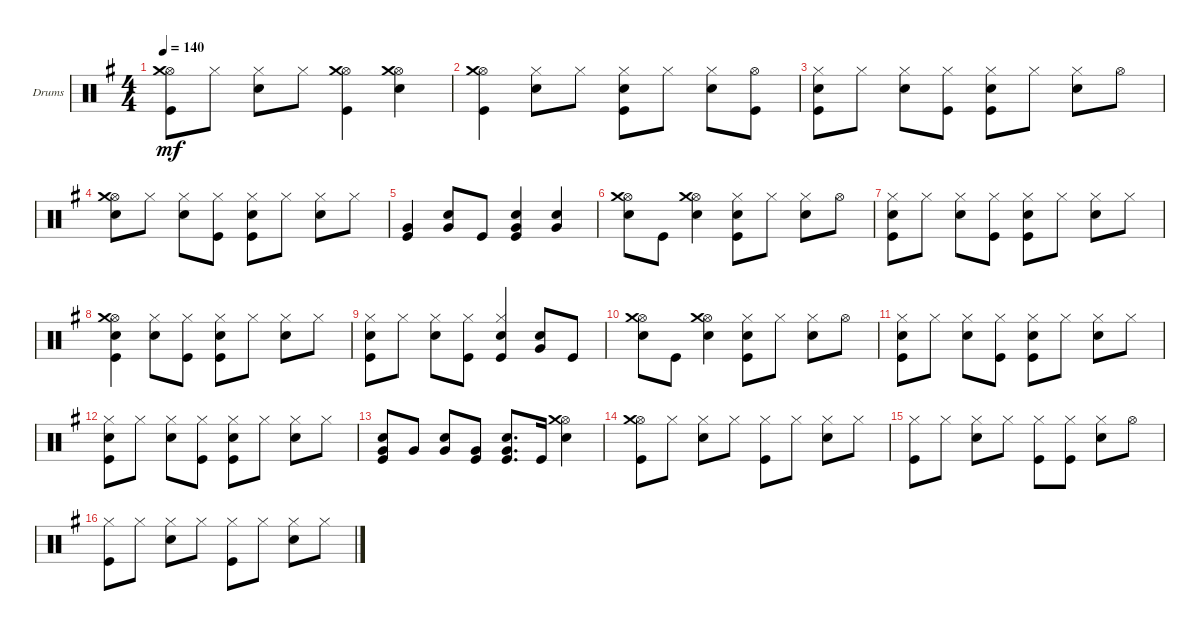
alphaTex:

\defaultSystemsLayout 4
\bracketExtendMode groupsimilarinstruments
\firstSystemTrackNameOrientation horizontal
\otherSystemsTrackNameOrientation horizontal
\track ("Drumkit" "Drums") {instrument percussion}
\staff {score}
\articulation defaults
\ts (4 4)
\tempo 140
\clef neutral
\ks g
("Hi-Hat (open)" "Crash medium (hit)" "Kick (hit)").8{dy mf} "Hi-Hat (closed)".8 ("Hi-Hat (closed)" "Snare (hit) 2").8 "Hi-Hat (closed)".8 ("Hi-Hat (open)" "Crash medium (hit)" "Kick (hit)").4 ("Snare (hit) 2" "Hi-Hat (open)" "Crash medium (hit)").4 |
("Hi-Hat (open)" "Kick (hit)" "Crash medium (hit)").4 ("Hi-Hat (closed)" "Snare (hit) 2").8 "Hi-Hat (closed)".8 ("Hi-Hat (closed)" "Snare (hit) 2" "Kick (hit)").8 "Hi-Hat (closed)".8 ("Hi-Hat (closed)" "Snare (hit) 2").8 ("Hi-Hat (open)" "Kick (hit)").8 |
("Kick (hit)" "Snare (hit) 2" "Hi-Hat (closed)").8 "Hi-Hat (closed)".8 ("Hi-Hat (closed)" "Snare (hit) 2").8 ("Hi-Hat (closed)" "Kick (hit)").8 ("Snare (hit) 2" "Hi-Hat (closed)" "Kick (hit)").8 "Hi-Hat (closed)".8 ("Hi-Hat (closed)" "Snare (hit) 2").8 "Hi-Hat (open)".8 |
("Hi-Hat (open)" "Crash medium (hit)" "Snare (hit) 2").8 "Hi-Hat (closed)".8 ("Hi-Hat (closed)" "Snare (hit) 2").8 ("Kick (hit)" "Hi-Hat (closed)").8 ("Hi-Hat (closed)" "Kick (hit)" "Snare (hit) 2").8 "Hi-Hat (closed)".8 ("Hi-Hat (closed)" "Snare (hit) 2").8 "Hi-Hat (closed)".8 |
("Kick (hit)" "Very Low Tom (hit)").4 ("Very Low Tom (hit)" "Snare (hit) 2").8 "Kick (hit)".8 ("Kick (hit)" "Very Low Tom (hit)" "Snare (hit) 2").4 ("Snare (hit) 2" "Very Low Tom (hit)").4 |
("Hi-Hat (open)" "Crash medium (hit)" "Snare (hit) 2").8 "Kick (hit)".8 ("Snare (hit) 2" "Hi-Hat (open)" "Crash medium (hit)").4 ("Hi-Hat (closed)" "Snare (hit) 2" "Kick (hit)").8 "Hi-Hat (closed)".8 ("Hi-Hat (closed)" "Snare (hit) 2").8 "Hi-Hat (open)".8 |
("Hi-Hat (closed)" "Snare (hit) 2" "Kick (hit)").8 "Hi-Hat (closed)".8 ("Hi-Hat (closed)" "Snare (hit) 2").8 ("Kick (hit)" "Hi-Hat (closed)").8 ("Hi-Hat (closed)" "Snare (hit) 2" "Kick (hit)").8 "Hi-Hat (closed)".8 ("Hi-Hat (closed)" "Snare (hit) 2").8 "Hi-Hat (closed)".8 |
("Hi-Hat (open)" "Crash medium (hit)" "Snare (hit) 2" "Kick (hit)").4 ("Snare (hit) 2" "Hi-Hat (closed)").8 ("Hi-Hat (closed)" "Kick (hit)").8 ("Kick (hit)" "Snare (hit) 2" "Hi-Hat (closed)").8 "Hi-Hat (closed)".8 ("Hi-Hat (closed)" "Snare (hit) 2").8 "Hi-Hat (closed)".8 |
("Snare (hit) 2" "Kick (hit)" "Hi-Hat (closed)").8 "Hi-Hat (closed)".8 ("Hi-Hat (closed)" "Snare (hit) 2").8 ("Kick (hit)" "Hi-Hat (closed)").8 ("Hi-Hat (closed)" "Snare (hit) 2" "Kick (hit)").4 ("Very Low Tom (hit)" "Snare (hit) 2").8 "Kick (hit)".8 |
("Hi-Hat (open)" "Crash medium (hit)" "Snare (hit) 2").8 "Kick (hit)".8 ("Snare (hit) 2" "Hi-Hat (open)" "Crash medium (hit)").4 ("Hi-Hat (closed)" "Snare (hit) 2" "Kick (hit)").8 "Hi-Hat (closed)".8 ("Hi-Hat (closed)" "Snare (hit) 2").8 "Hi-Hat (open)".8 |
("Hi-Hat (closed)" "Snare (hit) 2" "Kick (hit)").8 "Hi-Hat (closed)".8 ("Hi-Hat (closed)" "Snare (hit) 2").8 ("Kick (hit)" "Hi-Hat (closed)").8 ("Hi-Hat (closed)" "Snare (hit) 2" "Kick (hit)").8 "Hi-Hat (closed)".8 ("Hi-Hat (closed)" "Snare (hit) 2").8 "Hi-Hat (closed)".8 |
("Hi-Hat (closed)" "Snare (hit) 2" "Kick (hit)").8 "Hi-Hat (closed)".8 ("Hi-Hat (closed)" "Snare (hit) 2").8 ("Hi-Hat (closed)" "Kick (hit)").8 ("Hi-Hat (closed)" "Snare (hit) 2" "Kick (hit)").8 "Hi-Hat (closed)".8 ("Hi-Hat (closed)" "Snare (hit) 2").8 "Hi-Hat (closed)".8 |
("Snare (hit) 2" "Very Low Tom (hit)" "Kick (hit)").8 "Very Low Tom (hit)".8 ("Very Low Tom (hit)" "Snare (hit) 2").8 ("Very Low Tom (hit)" "Kick (hit)").8 ("Kick (hit)" "Very Low Tom (hit)" "Snare (hit) 2").8{d} "Kick (hit)".16 ("Snare (hit) 2" "Hi-Hat (open)" "Crash medium (hit)").4 |
("Hi-Hat (open)" "Kick (hit)" "Crash medium (hit)").8 "Hi-Hat (closed)".8 ("Hi-Hat (closed)" "Snare (hit) 2").8 "Hi-Hat (closed)".8 ("Hi-Hat (closed)" "Kick (hit)").8 "Hi-Hat (closed)".8 ("Hi-Hat (closed)" "Snare (hit) 2").8 "Hi-Hat (closed)".8 |
("Hi-Hat (closed)" "Kick (hit)").8 "Hi-Hat (closed)".8 ("Hi-Hat (closed)" "Snare (hit) 2").8 "Hi-Hat (closed)".8 ("Hi-Hat (closed)" "Kick (hit)").8 ("Kick (hit)" "Hi-Hat (closed)").8 ("Hi-Hat (closed)" "Snare (hit) 2").8 "Hi-Hat (open)".8 |
("Hi-Hat (closed)" "Kick (hit)").8 "Hi-Hat (closed)".8 ("Hi-Hat (closed)" "Snare (hit) 2").8 "Hi-Hat (closed)".8 ("Hi-Hat (closed)" "Kick (hit)").8 "Hi-Hat (closed)".8 ("Hi-Hat (closed)" "Snare (hit) 2").8 "Hi-Hat (closed)".8
